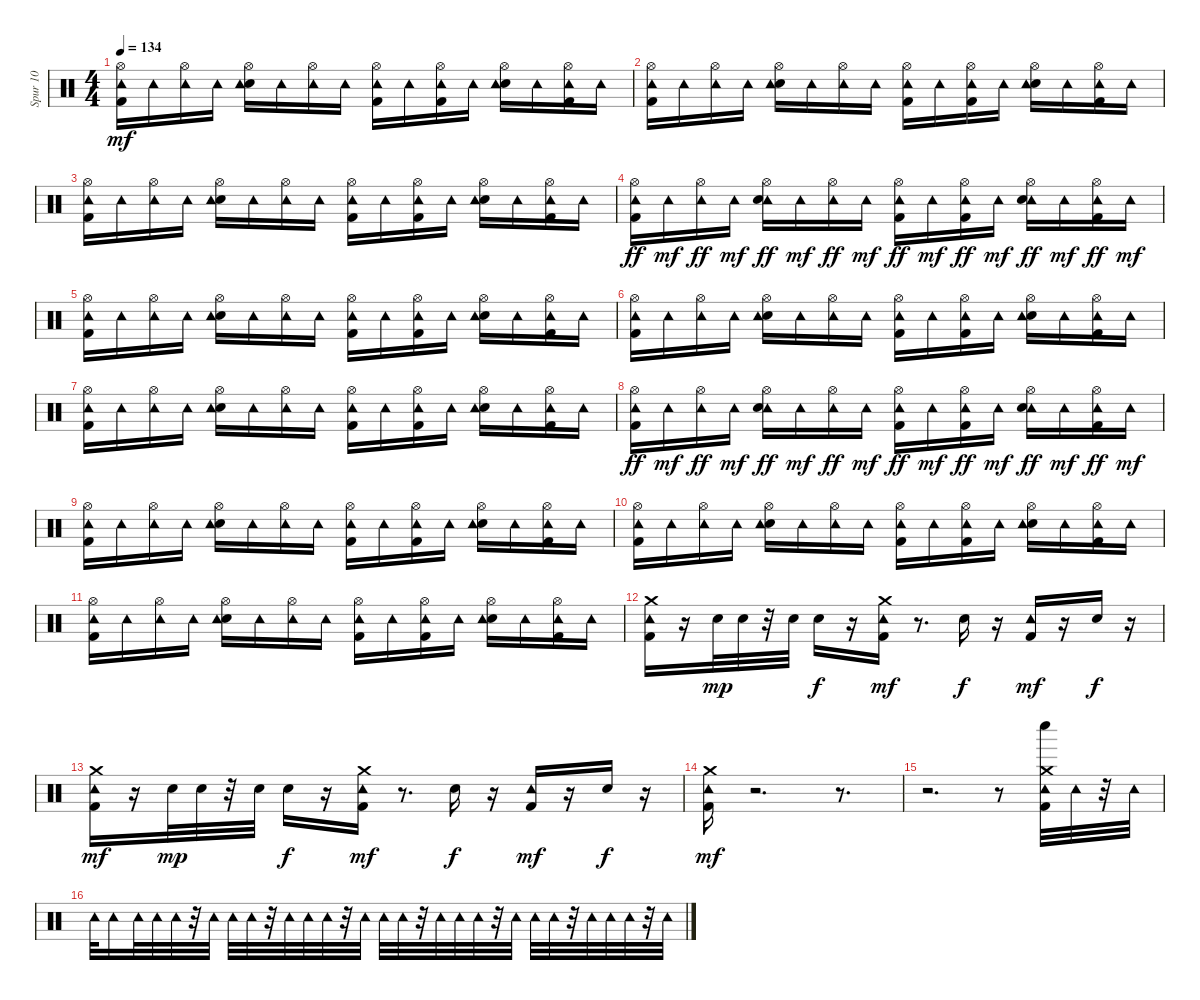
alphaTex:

\track ("Spur 10" "Spur 10") {instrument percussion}
\staff {score}
\articulation defaults
\ts (4 4)
\tempo 134
\clef neutral
\ks c
("Hi-Hat (open)" "Kick (hit) 2" "Tambourine (hit)").16{dy mf} "Tambourine (hit)".16 ("Hi-Hat (open)" "Tambourine (hit)").16 "Tambourine (hit)".16 ("Hi-Hat (open)" "Snare (hit) 2" "Tambourine (hit)").16 "Tambourine (hit)".16 ("Hi-Hat (open)" "Tambourine (hit)").16 "Tambourine (hit)".16 ("Hi-Hat (open)" "Kick (hit) 2" "Tambourine (hit)").16 "Tambourine (hit)".16 ("Hi-Hat (open)" "Kick (hit) 2" "Tambourine (hit)").16 "Tambourine (hit)".16 ("Hi-Hat (open)" "Snare (hit) 2" "Tambourine (hit)").16 "Tambourine (hit)".16 ("Hi-Hat (open)" "Kick (hit) 2" "Tambourine (hit)").16 "Tambourine (hit)".16 |
("Hi-Hat (open)" "Kick (hit) 2" "Tambourine (hit)").16 "Tambourine (hit)".16 ("Hi-Hat (open)" "Tambourine (hit)").16 "Tambourine (hit)".16 ("Hi-Hat (open)" "Snare (hit) 2" "Tambourine (hit)").16 "Tambourine (hit)".16 ("Hi-Hat (open)" "Tambourine (hit)").16 "Tambourine (hit)".16 ("Hi-Hat (open)" "Kick (hit) 2" "Tambourine (hit)").16 "Tambourine (hit)".16 ("Hi-Hat (open)" "Kick (hit) 2" "Tambourine (hit)").16 "Tambourine (hit)".16 ("Hi-Hat (open)" "Snare (hit) 2" "Tambourine (hit)").16 "Tambourine (hit)".16 ("Hi-Hat (open)" "Kick (hit) 2" "Tambourine (hit)").16 "Tambourine (hit)".16 |
("Hi-Hat (open)" "Kick (hit) 2" "Tambourine (hit)").16 "Tambourine (hit)".16 ("Hi-Hat (open)" "Tambourine (hit)").16 "Tambourine (hit)".16 ("Hi-Hat (open)" "Snare (hit) 2" "Tambourine (hit)").16 "Tambourine (hit)".16 ("Hi-Hat (open)" "Tambourine (hit)").16 "Tambourine (hit)".16 ("Hi-Hat (open)" "Kick (hit) 2" "Tambourine (hit)").16 "Tambourine (hit)".16 ("Hi-Hat (open)" "Kick (hit) 2" "Tambourine (hit)").16 "Tambourine (hit)".16 ("Hi-Hat (open)" "Snare (hit) 2" "Tambourine (hit)").16 "Tambourine (hit)".16 ("Hi-Hat (open)" "Kick (hit) 2" "Tambourine (hit)").16 "Tambourine (hit)".16 |
("Tambourine (hit)" "Kick (hit) 2" "Hi-Hat (open)").16{dy ff} "Tambourine (hit)".16{dy mf} ("Tambourine (hit)" "Hi-Hat (open)").16{dy ff} "Tambourine (hit)".16{dy mf} ("Tambourine (hit)" "Snare (hit) 2" "Hi-Hat (open)").16{dy ff} "Tambourine (hit)".16{dy mf} ("Tambourine (hit)" "Hi-Hat (open)").16{dy ff} "Tambourine (hit)".16{dy mf} ("Tambourine (hit)" "Kick (hit) 2" "Hi-Hat (open)").16{dy ff} "Tambourine (hit)".16{dy mf} ("Tambourine (hit)" "Kick (hit) 2" "Hi-Hat (open)").16{dy ff} "Tambourine (hit)".16{dy mf} ("Tambourine (hit)" "Snare (hit) 2" "Hi-Hat (open)").16{dy ff} "Tambourine (hit)".16{dy mf} ("Tambourine (hit)" "Kick (hit) 2" "Hi-Hat (open)").16{dy ff} "Tambourine (hit)".16{dy mf} |
("Hi-Hat (open)" "Kick (hit) 2" "Tambourine (hit)").16 "Tambourine (hit)".16 ("Hi-Hat (open)" "Tambourine (hit)").16 "Tambourine (hit)".16 ("Hi-Hat (open)" "Snare (hit) 2" "Tambourine (hit)").16 "Tambourine (hit)".16 ("Hi-Hat (open)" "Tambourine (hit)").16 "Tambourine (hit)".16 ("Hi-Hat (open)" "Kick (hit) 2" "Tambourine (hit)").16 "Tambourine (hit)".16 ("Hi-Hat (open)" "Kick (hit) 2" "Tambourine (hit)").16 "Tambourine (hit)".16 ("Hi-Hat (open)" "Snare (hit) 2" "Tambourine (hit)").16 "Tambourine (hit)".16 ("Hi-Hat (open)" "Kick (hit) 2" "Tambourine (hit)").16 "Tambourine (hit)".16 |
("Hi-Hat (open)" "Kick (hit) 2" "Tambourine (hit)").16 "Tambourine (hit)".16 ("Hi-Hat (open)" "Tambourine (hit)").16 "Tambourine (hit)".16 ("Hi-Hat (open)" "Snare (hit) 2" "Tambourine (hit)").16 "Tambourine (hit)".16 ("Hi-Hat (open)" "Tambourine (hit)").16 "Tambourine (hit)".16 ("Hi-Hat (open)" "Kick (hit) 2" "Tambourine (hit)").16 "Tambourine (hit)".16 ("Hi-Hat (open)" "Kick (hit) 2" "Tambourine (hit)").16 "Tambourine (hit)".16 ("Hi-Hat (open)" "Snare (hit) 2" "Tambourine (hit)").16 "Tambourine (hit)".16 ("Hi-Hat (open)" "Kick (hit) 2" "Tambourine (hit)").16 "Tambourine (hit)".16 |
("Hi-Hat (open)" "Kick (hit) 2" "Tambourine (hit)").16 "Tambourine (hit)".16 ("Hi-Hat (open)" "Tambourine (hit)").16 "Tambourine (hit)".16 ("Hi-Hat (open)" "Snare (hit) 2" "Tambourine (hit)").16 "Tambourine (hit)".16 ("Hi-Hat (open)" "Tambourine (hit)").16 "Tambourine (hit)".16 ("Hi-Hat (open)" "Kick (hit) 2" "Tambourine (hit)").16 "Tambourine (hit)".16 ("Hi-Hat (open)" "Kick (hit) 2" "Tambourine (hit)").16 "Tambourine (hit)".16 ("Hi-Hat (open)" "Snare (hit) 2" "Tambourine (hit)").16 "Tambourine (hit)".16 ("Hi-Hat (open)" "Kick (hit) 2" "Tambourine (hit)").16 "Tambourine (hit)".16 |
("Tambourine (hit)" "Kick (hit) 2" "Hi-Hat (open)").16{dy ff} "Tambourine (hit)".16{dy mf} ("Tambourine (hit)" "Hi-Hat (open)").16{dy ff} "Tambourine (hit)".16{dy mf} ("Tambourine (hit)" "Snare (hit) 2" "Hi-Hat (open)").16{dy ff} "Tambourine (hit)".16{dy mf} ("Tambourine (hit)" "Hi-Hat (open)").16{dy ff} "Tambourine (hit)".16{dy mf} ("Tambourine (hit)" "Kick (hit) 2" "Hi-Hat (open)").16{dy ff} "Tambourine (hit)".16{dy mf} ("Tambourine (hit)" "Kick (hit) 2" "Hi-Hat (open)").16{dy ff} "Tambourine (hit)".16{dy mf} ("Tambourine (hit)" "Snare (hit) 2" "Hi-Hat (open)").16{dy ff} "Tambourine (hit)".16{dy mf} ("Tambourine (hit)" "Kick (hit) 2" "Hi-Hat (open)").16{dy ff} "Tambourine (hit)".16{dy mf} |
("Hi-Hat (open)" "Kick (hit) 2" "Tambourine (hit)").16 "Tambourine (hit)".16 ("Hi-Hat (open)" "Tambourine (hit)").16 "Tambourine (hit)".16 ("Hi-Hat (open)" "Snare (hit) 2" "Tambourine (hit)").16 "Tambourine (hit)".16 ("Hi-Hat (open)" "Tambourine (hit)").16 "Tambourine (hit)".16 ("Hi-Hat (open)" "Kick (hit) 2" "Tambourine (hit)").16 "Tambourine (hit)".16 ("Hi-Hat (open)" "Kick (hit) 2" "Tambourine (hit)").16 "Tambourine (hit)".16 ("Hi-Hat (open)" "Snare (hit) 2" "Tambourine (hit)").16 "Tambourine (hit)".16 ("Hi-Hat (open)" "Kick (hit) 2" "Tambourine (hit)").16 "Tambourine (hit)".16 |
("Hi-Hat (open)" "Kick (hit) 2" "Tambourine (hit)").16 "Tambourine (hit)".16 ("Hi-Hat (open)" "Tambourine (hit)").16 "Tambourine (hit)".16 ("Hi-Hat (open)" "Snare (hit) 2" "Tambourine (hit)").16 "Tambourine (hit)".16 ("Hi-Hat (open)" "Tambourine (hit)").16 "Tambourine (hit)".16 ("Hi-Hat (open)" "Kick (hit) 2" "Tambourine (hit)").16 "Tambourine (hit)".16 ("Hi-Hat (open)" "Kick (hit) 2" "Tambourine (hit)").16 "Tambourine (hit)".16 ("Hi-Hat (open)" "Snare (hit) 2" "Tambourine (hit)").16 "Tambourine (hit)".16 ("Hi-Hat (open)" "Kick (hit) 2" "Tambourine (hit)").16 "Tambourine (hit)".16 |
("Hi-Hat (open)" "Kick (hit) 2" "Tambourine (hit)").16 "Tambourine (hit)".16 ("Hi-Hat (open)" "Tambourine (hit)").16 "Tambourine (hit)".16 ("Hi-Hat (open)" "Snare (hit) 2" "Tambourine (hit)").16 "Tambourine (hit)".16 ("Hi-Hat (open)" "Tambourine (hit)").16 "Tambourine (hit)".16 ("Hi-Hat (open)" "Kick (hit) 2" "Tambourine (hit)").16 "Tambourine (hit)".16 ("Hi-Hat (open)" "Kick (hit) 2" "Tambourine (hit)").16 "Tambourine (hit)".16 ("Hi-Hat (open)" "Snare (hit) 2" "Tambourine (hit)").16 "Tambourine (hit)".16 ("Hi-Hat (open)" "Kick (hit) 2" "Tambourine (hit)").16 "Tambourine (hit)".16 |
("Tambourine (hit)" "Crash medium (hit)" "Kick (hit) 2").16 r.16 "Snare (hit) 2".32{dy mp} "Snare (hit) 2".32 r.32 "Snare (hit) 2".32 "Snare (hit) 2".16{dy f} r.16 ("Tambourine (hit)" "Crash medium (hit)" "Kick (hit) 2").16{dy mf} r.8{d} "Snare (hit) 2".16{dy f} r.16 ("Tambourine (hit)" "Kick (hit) 2").16{dy mf} r.16 "Snare (hit) 2".16{dy f} r.16 |
("Tambourine (hit)" "Kick (hit) 2" "Crash medium (hit)").16{dy mf} r.16 "Snare (hit) 2".32{dy mp} "Snare (hit) 2".32 r.32 "Snare (hit) 2".32 "Snare (hit) 2".16{dy f} r.16 ("Tambourine (hit)" "Kick (hit) 2" "Crash medium (hit)").16{dy mf} r.8{d} "Snare (hit) 2".16{dy f} r.16 ("Tambourine (hit)" "Kick (hit) 2").16{dy mf} r.16 "Snare (hit) 2".16{dy f} r.16 |
("Tambourine (hit)" "Crash medium (hit)" "Kick (hit) 2").16{dy mf} r.2{d} r.8{d} |
r.2{d} r.8 ("Whistle low (hit)" "Crash medium (hit)" "Kick (hit) 2" "Tambourine (hit)").32 "Tambourine (hit)".32 r.32 "Tambourine (hit)".32 |
"Tambourine (hit)".32 "Tambourine (hit)".16 "Tambourine (hit)".32 "Tambourine (hit)".32 "Tambourine (hit)".32 r.32 "Tambourine (hit)".32 "Tambourine (hit)".32 "Tambourine (hit)".32 r.32 "Tambourine (hit)".32 "Tambourine (hit)".32 "Tambourine (hit)".32 r.32 "Tambourine (hit)".32 "Tambourine (hit)".32 "Tambourine (hit)".32 r.32 "Tambourine (hit)".32 "Tambourine (hit)".32 "Tambourine (hit)".32 r.32 "Tambourine (hit)".32 "Tambourine (hit)".32 "Tambourine (hit)".32 r.32 "Tambourine (hit)".32 "Tambourine (hit)".32 "Tambourine (hit)".32 r.32 "Tambourine (hit)".32
